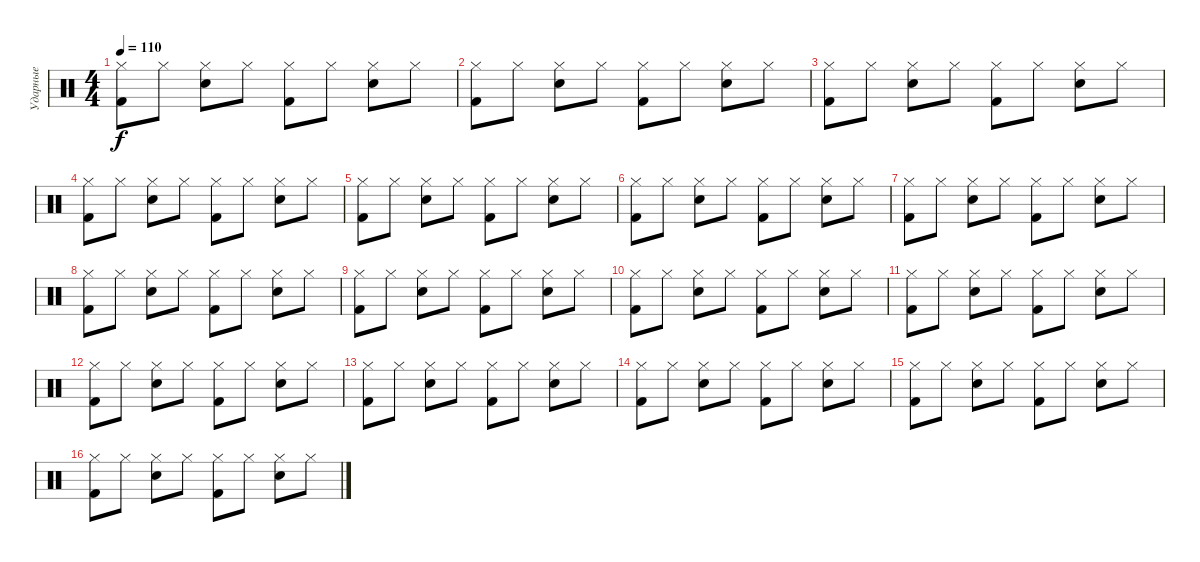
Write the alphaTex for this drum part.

\track ("Ударные" "Ударные") {instrument percussion}
\staff {score}
\articulation defaults
\ts (4 4)
\tempo 110
\clef neutral
\ks c
("Hi-Hat (closed)" "Kick (hit) 2").8{dy f} "Hi-Hat (closed)".8 ("Hi-Hat (closed)" "Snare (hit) 2").8 "Hi-Hat (closed)".8 ("Hi-Hat (closed)" "Kick (hit) 2").8 "Hi-Hat (closed)".8 ("Hi-Hat (closed)" "Snare (hit) 2").8 "Hi-Hat (closed)".8 |
("Hi-Hat (closed)" "Kick (hit) 2").8 "Hi-Hat (closed)".8 ("Hi-Hat (closed)" "Snare (hit) 2").8 "Hi-Hat (closed)".8 ("Hi-Hat (closed)" "Kick (hit) 2").8 "Hi-Hat (closed)".8 ("Hi-Hat (closed)" "Snare (hit) 2").8 "Hi-Hat (closed)".8 |
("Hi-Hat (closed)" "Kick (hit) 2").8 "Hi-Hat (closed)".8 ("Hi-Hat (closed)" "Snare (hit) 2").8 "Hi-Hat (closed)".8 ("Hi-Hat (closed)" "Kick (hit) 2").8 "Hi-Hat (closed)".8 ("Hi-Hat (closed)" "Snare (hit) 2").8 "Hi-Hat (closed)".8 |
("Hi-Hat (closed)" "Kick (hit) 2").8 "Hi-Hat (closed)".8 ("Hi-Hat (closed)" "Snare (hit) 2").8 "Hi-Hat (closed)".8 ("Hi-Hat (closed)" "Kick (hit) 2").8 "Hi-Hat (closed)".8 ("Hi-Hat (closed)" "Snare (hit) 2").8 "Hi-Hat (closed)".8 |
("Hi-Hat (closed)" "Kick (hit) 2").8 "Hi-Hat (closed)".8 ("Hi-Hat (closed)" "Snare (hit) 2").8 "Hi-Hat (closed)".8 ("Hi-Hat (closed)" "Kick (hit) 2").8 "Hi-Hat (closed)".8 ("Hi-Hat (closed)" "Snare (hit) 2").8 "Hi-Hat (closed)".8 |
("Hi-Hat (closed)" "Kick (hit) 2").8 "Hi-Hat (closed)".8 ("Hi-Hat (closed)" "Snare (hit) 2").8 "Hi-Hat (closed)".8 ("Hi-Hat (closed)" "Kick (hit) 2").8 "Hi-Hat (closed)".8 ("Hi-Hat (closed)" "Snare (hit) 2").8 "Hi-Hat (closed)".8 |
("Hi-Hat (closed)" "Kick (hit) 2").8 "Hi-Hat (closed)".8 ("Hi-Hat (closed)" "Snare (hit) 2").8 "Hi-Hat (closed)".8 ("Hi-Hat (closed)" "Kick (hit) 2").8 "Hi-Hat (closed)".8 ("Hi-Hat (closed)" "Snare (hit) 2").8 "Hi-Hat (closed)".8 |
("Hi-Hat (closed)" "Kick (hit) 2").8 "Hi-Hat (closed)".8 ("Hi-Hat (closed)" "Snare (hit) 2").8 "Hi-Hat (closed)".8 ("Hi-Hat (closed)" "Kick (hit) 2").8 "Hi-Hat (closed)".8 ("Hi-Hat (closed)" "Snare (hit) 2").8 "Hi-Hat (closed)".8 |
("Hi-Hat (closed)" "Kick (hit) 2").8 "Hi-Hat (closed)".8 ("Hi-Hat (closed)" "Snare (hit) 2").8 "Hi-Hat (closed)".8 ("Hi-Hat (closed)" "Kick (hit) 2").8 "Hi-Hat (closed)".8 ("Hi-Hat (closed)" "Snare (hit) 2").8 "Hi-Hat (closed)".8 |
("Hi-Hat (closed)" "Kick (hit) 2").8 "Hi-Hat (closed)".8 ("Hi-Hat (closed)" "Snare (hit) 2").8 "Hi-Hat (closed)".8 ("Hi-Hat (closed)" "Kick (hit) 2").8 "Hi-Hat (closed)".8 ("Hi-Hat (closed)" "Snare (hit) 2").8 "Hi-Hat (closed)".8 |
("Hi-Hat (closed)" "Kick (hit) 2").8 "Hi-Hat (closed)".8 ("Hi-Hat (closed)" "Snare (hit) 2").8 "Hi-Hat (closed)".8 ("Hi-Hat (closed)" "Kick (hit) 2").8 "Hi-Hat (closed)".8 ("Hi-Hat (closed)" "Snare (hit) 2").8 "Hi-Hat (closed)".8 |
("Hi-Hat (closed)" "Kick (hit) 2").8 "Hi-Hat (closed)".8 ("Hi-Hat (closed)" "Snare (hit) 2").8 "Hi-Hat (closed)".8 ("Hi-Hat (closed)" "Kick (hit) 2").8 "Hi-Hat (closed)".8 ("Hi-Hat (closed)" "Snare (hit) 2").8 "Hi-Hat (closed)".8 |
("Hi-Hat (closed)" "Kick (hit) 2").8 "Hi-Hat (closed)".8 ("Hi-Hat (closed)" "Snare (hit) 2").8 "Hi-Hat (closed)".8 ("Hi-Hat (closed)" "Kick (hit) 2").8 "Hi-Hat (closed)".8 ("Hi-Hat (closed)" "Snare (hit) 2").8 "Hi-Hat (closed)".8 |
("Hi-Hat (closed)" "Kick (hit) 2").8 "Hi-Hat (closed)".8 ("Hi-Hat (closed)" "Snare (hit) 2").8 "Hi-Hat (closed)".8 ("Hi-Hat (closed)" "Kick (hit) 2").8 "Hi-Hat (closed)".8 ("Hi-Hat (closed)" "Snare (hit) 2").8 "Hi-Hat (closed)".8 |
("Hi-Hat (closed)" "Kick (hit) 2").8 "Hi-Hat (closed)".8 ("Hi-Hat (closed)" "Snare (hit) 2").8 "Hi-Hat (closed)".8 ("Hi-Hat (closed)" "Kick (hit) 2").8 "Hi-Hat (closed)".8 ("Hi-Hat (closed)" "Snare (hit) 2").8 "Hi-Hat (closed)".8 |
("Hi-Hat (closed)" "Kick (hit) 2").8 "Hi-Hat (closed)".8 ("Hi-Hat (closed)" "Snare (hit) 2").8 "Hi-Hat (closed)".8 ("Hi-Hat (closed)" "Kick (hit) 2").8 "Hi-Hat (closed)".8 ("Hi-Hat (closed)" "Snare (hit) 2").8 "Hi-Hat (closed)".8
